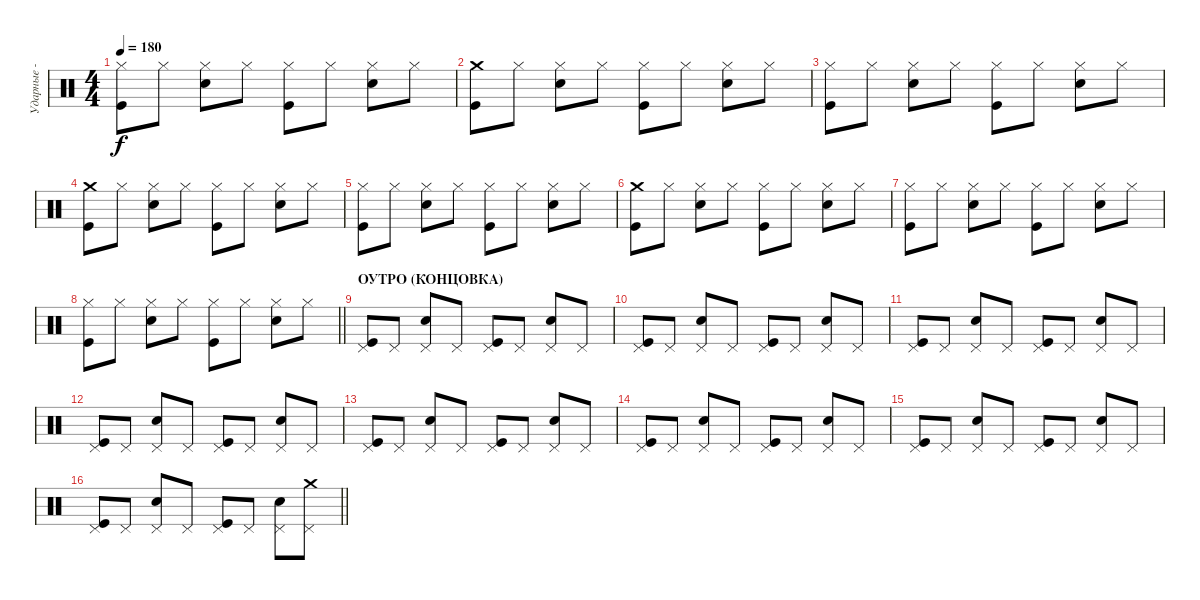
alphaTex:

\track ("Ударные - Томми Рамон" "Ударные - ") {instrument percussion}
\staff {score}
\articulation defaults
\ts (4 4)
\tempo 180
\clef neutral
\ks c
("Hi-Hat (closed)" "Kick (hit)").8{dy f} "Hi-Hat (closed)".8 ("Hi-Hat (closed)" "Snare (hit) 2").8 "Hi-Hat (closed)".8 ("Hi-Hat (closed)" "Kick (hit)").8 "Hi-Hat (closed)".8 ("Hi-Hat (closed)" "Snare (hit) 2").8 "Hi-Hat (closed)".8 |
("Crash medium (hit)" "Kick (hit)").8 "Hi-Hat (closed)".8 ("Hi-Hat (closed)" "Snare (hit) 2").8 "Hi-Hat (closed)".8 ("Hi-Hat (closed)" "Kick (hit)").8 "Hi-Hat (closed)".8 ("Hi-Hat (closed)" "Snare (hit) 2").8 "Hi-Hat (closed)".8 |
("Hi-Hat (closed)" "Kick (hit)").8 "Hi-Hat (closed)".8 ("Hi-Hat (closed)" "Snare (hit) 2").8 "Hi-Hat (closed)".8 ("Hi-Hat (closed)" "Kick (hit)").8 "Hi-Hat (closed)".8 ("Hi-Hat (closed)" "Snare (hit) 2").8 "Hi-Hat (closed)".8 |
("Crash medium (hit)" "Kick (hit)").8 "Hi-Hat (closed)".8 ("Hi-Hat (closed)" "Snare (hit) 2").8 "Hi-Hat (closed)".8 ("Hi-Hat (closed)" "Kick (hit)").8 "Hi-Hat (closed)".8 ("Hi-Hat (closed)" "Snare (hit) 2").8 "Hi-Hat (closed)".8 |
("Hi-Hat (closed)" "Kick (hit)").8 "Hi-Hat (closed)".8 ("Hi-Hat (closed)" "Snare (hit) 2").8 "Hi-Hat (closed)".8 ("Hi-Hat (closed)" "Kick (hit)").8 "Hi-Hat (closed)".8 ("Hi-Hat (closed)" "Snare (hit) 2").8 "Hi-Hat (closed)".8 |
("Crash medium (hit)" "Kick (hit)").8 "Hi-Hat (closed)".8 ("Hi-Hat (closed)" "Snare (hit) 2").8 "Hi-Hat (closed)".8 ("Hi-Hat (closed)" "Kick (hit)").8 "Hi-Hat (closed)".8 ("Hi-Hat (closed)" "Snare (hit) 2").8 "Hi-Hat (closed)".8 |
("Hi-Hat (closed)" "Kick (hit)").8 "Hi-Hat (closed)".8 ("Hi-Hat (closed)" "Snare (hit) 2").8 "Hi-Hat (closed)".8 ("Hi-Hat (closed)" "Kick (hit)").8 "Hi-Hat (closed)".8 ("Hi-Hat (closed)" "Snare (hit) 2").8 "Hi-Hat (closed)".8 |
\barLineRight lightlight
("Hi-Hat (closed)" "Kick (hit)").8 "Hi-Hat (closed)".8 ("Hi-Hat (closed)" "Snare (hit) 2").8 "Hi-Hat (closed)".8 ("Hi-Hat (closed)" "Kick (hit)").8 "Hi-Hat (closed)".8 ("Hi-Hat (closed)" "Snare (hit) 2").8 "Hi-Hat (closed)".8 |
\section ("" "ОУТРО (КОНЦОВКА)")
("Pedal Hi-Hat (hit)" "Kick (hit)").8 "Pedal Hi-Hat (hit)".8 ("Pedal Hi-Hat (hit)" "Snare (hit) 2").8 "Pedal Hi-Hat (hit)".8 ("Pedal Hi-Hat (hit)" "Kick (hit)").8 "Pedal Hi-Hat (hit)".8 ("Pedal Hi-Hat (hit)" "Snare (hit) 2").8 "Pedal Hi-Hat (hit)".8 |
("Pedal Hi-Hat (hit)" "Kick (hit)").8 "Pedal Hi-Hat (hit)".8 ("Pedal Hi-Hat (hit)" "Snare (hit) 2").8 "Pedal Hi-Hat (hit)".8 ("Pedal Hi-Hat (hit)" "Kick (hit)").8 "Pedal Hi-Hat (hit)".8 ("Pedal Hi-Hat (hit)" "Snare (hit) 2").8 "Pedal Hi-Hat (hit)".8 |
("Pedal Hi-Hat (hit)" "Kick (hit)").8 "Pedal Hi-Hat (hit)".8 ("Pedal Hi-Hat (hit)" "Snare (hit) 2").8 "Pedal Hi-Hat (hit)".8 ("Pedal Hi-Hat (hit)" "Kick (hit)").8 "Pedal Hi-Hat (hit)".8 ("Pedal Hi-Hat (hit)" "Snare (hit) 2").8 "Pedal Hi-Hat (hit)".8 |
("Pedal Hi-Hat (hit)" "Kick (hit)").8 "Pedal Hi-Hat (hit)".8 ("Pedal Hi-Hat (hit)" "Snare (hit) 2").8 "Pedal Hi-Hat (hit)".8 ("Pedal Hi-Hat (hit)" "Kick (hit)").8 "Pedal Hi-Hat (hit)".8 ("Pedal Hi-Hat (hit)" "Snare (hit) 2").8 "Pedal Hi-Hat (hit)".8 |
("Pedal Hi-Hat (hit)" "Kick (hit)").8 "Pedal Hi-Hat (hit)".8 ("Pedal Hi-Hat (hit)" "Snare (hit) 2").8 "Pedal Hi-Hat (hit)".8 ("Pedal Hi-Hat (hit)" "Kick (hit)").8 "Pedal Hi-Hat (hit)".8 ("Pedal Hi-Hat (hit)" "Snare (hit) 2").8 "Pedal Hi-Hat (hit)".8 |
("Pedal Hi-Hat (hit)" "Kick (hit)").8 "Pedal Hi-Hat (hit)".8 ("Pedal Hi-Hat (hit)" "Snare (hit) 2").8 "Pedal Hi-Hat (hit)".8 ("Pedal Hi-Hat (hit)" "Kick (hit)").8 "Pedal Hi-Hat (hit)".8 ("Pedal Hi-Hat (hit)" "Snare (hit) 2").8 "Pedal Hi-Hat (hit)".8 |
("Pedal Hi-Hat (hit)" "Kick (hit)").8 "Pedal Hi-Hat (hit)".8 ("Pedal Hi-Hat (hit)" "Snare (hit) 2").8 "Pedal Hi-Hat (hit)".8 ("Pedal Hi-Hat (hit)" "Kick (hit)").8 "Pedal Hi-Hat (hit)".8 ("Pedal Hi-Hat (hit)" "Snare (hit) 2").8 "Pedal Hi-Hat (hit)".8 |
\barLineRight lightlight
("Pedal Hi-Hat (hit)" "Kick (hit)").8 "Pedal Hi-Hat (hit)".8 ("Pedal Hi-Hat (hit)" "Snare (hit) 2").8 "Pedal Hi-Hat (hit)".8 ("Pedal Hi-Hat (hit)" "Kick (hit)").8 "Pedal Hi-Hat (hit)".8 ("Pedal Hi-Hat (hit)" "Snare (hit) 2").8 ("Crash medium (hit)" "Pedal Hi-Hat (hit)").8
